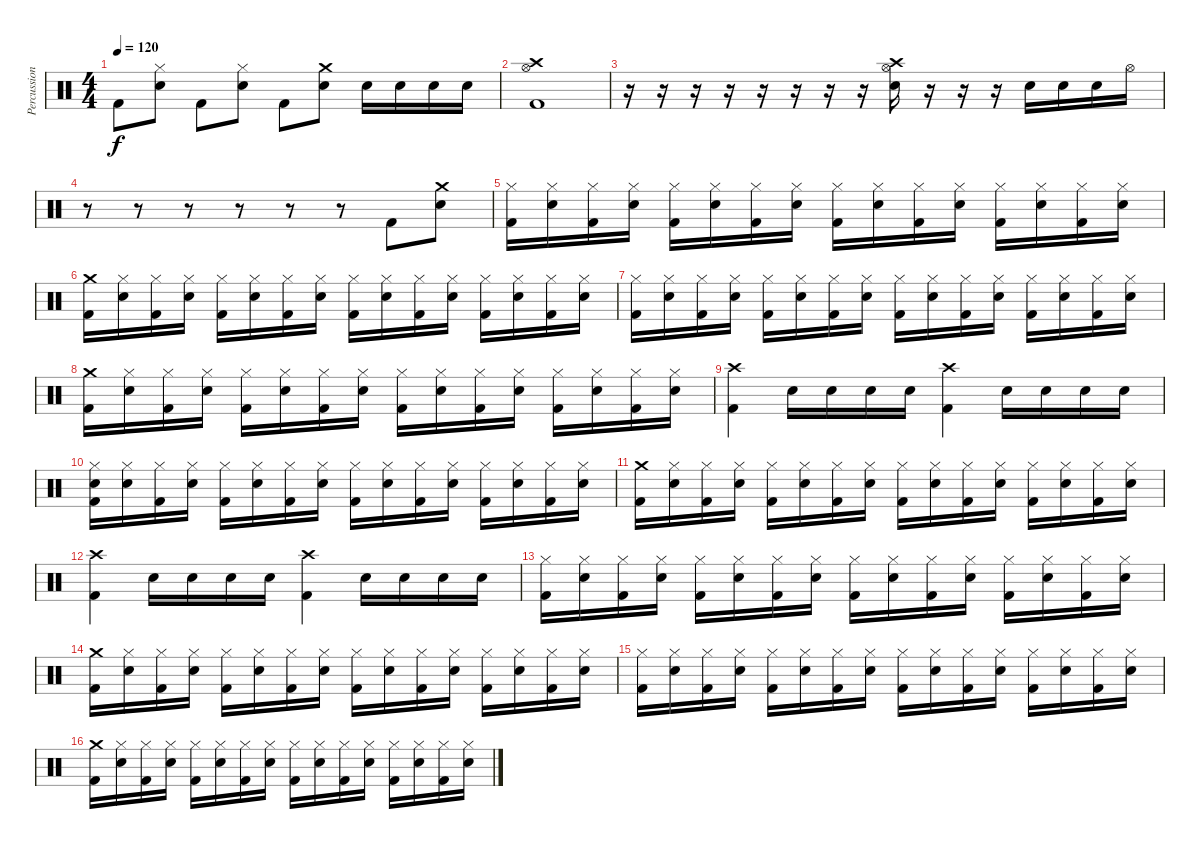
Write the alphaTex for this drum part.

\track ("Percussion" "Percussion") {instrument percussion}
\staff {score}
\articulation defaults
\ts (4 4)
\tempo 120
\clef neutral
\ks c "Kick (hit) 2".8{dy f}
("Hi-Hat (closed)" "Snare (hit) 2").8 "Kick (hit) 2".8 ("Hi-Hat (closed)" "Snare (hit) 2").8 "Kick (hit) 2".8 ("Crash medium (hit)" "Snare (hit) 2").8 "Snare (hit) 2".16 "Snare (hit) 2".16 "Snare (hit) 2".16 "Snare (hit) 2".16 |
("Crash high (hit)" "Hi-Hat (open)" "Kick (hit) 2").1 |
r.16 r.16 r.16 r.16 r.16 r.16 r.16 r.16 ("Crash high (hit)" "Hi-Hat (open)" "Snare (hit) 2").16 r.16 r.16 r.16 "Snare (hit) 2".16 "Snare (hit) 2".16 "Snare (hit) 2".16 "Hi-Hat (open)".16 |
r.8 r.8 r.8 r.8 r.8 r.8 "Kick (hit) 2".8 ("Crash medium (hit)" "Snare (hit) 2").8 |
("Hi-Hat (closed)" "Kick (hit) 2").16 ("Hi-Hat (closed)" "Snare (hit) 2").16 ("Hi-Hat (closed)" "Kick (hit) 2").16 ("Hi-Hat (closed)" "Snare (hit) 2").16 ("Hi-Hat (closed)" "Kick (hit) 2").16 ("Hi-Hat (closed)" "Snare (hit) 2").16 ("Hi-Hat (closed)" "Kick (hit) 2").16 ("Hi-Hat (closed)" "Snare (hit) 2").16 ("Hi-Hat (closed)" "Kick (hit) 2").16 ("Hi-Hat (closed)" "Snare (hit) 2").16 ("Hi-Hat (closed)" "Kick (hit) 2").16 ("Hi-Hat (closed)" "Snare (hit) 2").16 ("Hi-Hat (closed)" "Kick (hit) 2").16 ("Hi-Hat (closed)" "Snare (hit) 2").16 ("Hi-Hat (closed)" "Kick (hit) 2").16 ("Hi-Hat (closed)" "Snare (hit) 2").16 |
("Crash medium (hit)" "Kick (hit) 2").16 ("Hi-Hat (closed)" "Snare (hit) 2").16 ("Hi-Hat (closed)" "Kick (hit) 2").16 ("Hi-Hat (closed)" "Snare (hit) 2").16 ("Hi-Hat (closed)" "Kick (hit) 2").16 ("Hi-Hat (closed)" "Snare (hit) 2").16 ("Hi-Hat (closed)" "Kick (hit) 2").16 ("Hi-Hat (closed)" "Snare (hit) 2").16 ("Hi-Hat (closed)" "Kick (hit) 2").16 ("Hi-Hat (closed)" "Snare (hit) 2").16 ("Hi-Hat (closed)" "Kick (hit) 2").16 ("Hi-Hat (closed)" "Snare (hit) 2").16 ("Hi-Hat (closed)" "Kick (hit) 2").16 ("Hi-Hat (closed)" "Snare (hit) 2").16 ("Hi-Hat (closed)" "Kick (hit) 2").16 ("Hi-Hat (closed)" "Snare (hit) 2").16 |
("Hi-Hat (closed)" "Kick (hit) 2").16 ("Hi-Hat (closed)" "Snare (hit) 2").16 ("Hi-Hat (closed)" "Kick (hit) 2").16 ("Hi-Hat (closed)" "Snare (hit) 2").16 ("Hi-Hat (closed)" "Kick (hit) 2").16 ("Hi-Hat (closed)" "Snare (hit) 2").16 ("Hi-Hat (closed)" "Kick (hit) 2").16 ("Hi-Hat (closed)" "Snare (hit) 2").16 ("Hi-Hat (closed)" "Kick (hit) 2").16 ("Hi-Hat (closed)" "Snare (hit) 2").16 ("Hi-Hat (closed)" "Kick (hit) 2").16 ("Hi-Hat (closed)" "Snare (hit) 2").16 ("Hi-Hat (closed)" "Kick (hit) 2").16 ("Hi-Hat (closed)" "Snare (hit) 2").16 ("Hi-Hat (closed)" "Kick (hit) 2").16 ("Hi-Hat (closed)" "Snare (hit) 2").16 |
("Crash medium (hit)" "Kick (hit) 2").16 ("Hi-Hat (closed)" "Snare (hit) 2").16 ("Hi-Hat (closed)" "Kick (hit) 2").16 ("Hi-Hat (closed)" "Snare (hit) 2").16 ("Hi-Hat (closed)" "Kick (hit) 2").16 ("Hi-Hat (closed)" "Snare (hit) 2").16 ("Hi-Hat (closed)" "Kick (hit) 2").16 ("Hi-Hat (closed)" "Snare (hit) 2").16 ("Hi-Hat (closed)" "Kick (hit) 2").16 ("Hi-Hat (closed)" "Snare (hit) 2").16 ("Hi-Hat (closed)" "Kick (hit) 2").16 ("Hi-Hat (closed)" "Snare (hit) 2").16 ("Hi-Hat (closed)" "Kick (hit) 2").16 ("Hi-Hat (closed)" "Snare (hit) 2").16 ("Hi-Hat (closed)" "Kick (hit) 2").16 ("Hi-Hat (closed)" "Snare (hit) 2").16 |
("Crash high (hit)" "Kick (hit) 2").4 "Snare (hit) 2".16 "Snare (hit) 2".16 "Snare (hit) 2".16 "Snare (hit) 2".16 ("Crash high (hit)" "Kick (hit) 2").4 "Snare (hit) 2".16 "Snare (hit) 2".16 "Snare (hit) 2".16 "Snare (hit) 2".16 |
("Hi-Hat (closed)" "Snare (hit)" "Kick (hit) 2").16 ("Hi-Hat (closed)" "Snare (hit) 2").16 ("Hi-Hat (closed)" "Kick (hit) 2").16 ("Hi-Hat (closed)" "Snare (hit) 2").16 ("Hi-Hat (closed)" "Kick (hit) 2").16 ("Hi-Hat (closed)" "Snare (hit) 2").16 ("Hi-Hat (closed)" "Kick (hit) 2").16 ("Hi-Hat (closed)" "Snare (hit) 2").16 ("Hi-Hat (closed)" "Kick (hit) 2").16 ("Hi-Hat (closed)" "Snare (hit) 2").16 ("Hi-Hat (closed)" "Kick (hit) 2").16 ("Hi-Hat (closed)" "Snare (hit) 2").16 ("Hi-Hat (closed)" "Kick (hit) 2").16 ("Hi-Hat (closed)" "Snare (hit) 2").16 ("Hi-Hat (closed)" "Kick (hit) 2").16 ("Hi-Hat (closed)" "Snare (hit) 2").16 |
("Crash medium (hit)" "Kick (hit) 2").16 ("Hi-Hat (closed)" "Snare (hit) 2").16 ("Hi-Hat (closed)" "Kick (hit) 2").16 ("Hi-Hat (closed)" "Snare (hit) 2").16 ("Hi-Hat (closed)" "Kick (hit) 2").16 ("Hi-Hat (closed)" "Snare (hit) 2").16 ("Hi-Hat (closed)" "Kick (hit) 2").16 ("Hi-Hat (closed)" "Snare (hit) 2").16 ("Hi-Hat (closed)" "Kick (hit) 2").16 ("Hi-Hat (closed)" "Snare (hit) 2").16 ("Hi-Hat (closed)" "Kick (hit) 2").16 ("Hi-Hat (closed)" "Snare (hit) 2").16 ("Hi-Hat (closed)" "Kick (hit) 2").16 ("Hi-Hat (closed)" "Snare (hit) 2").16 ("Hi-Hat (closed)" "Kick (hit) 2").16 ("Hi-Hat (closed)" "Snare (hit) 2").16 |
("Crash high (hit)" "Kick (hit) 2").4 "Snare (hit) 2".16 "Snare (hit) 2".16 "Snare (hit) 2".16 "Snare (hit) 2".16 ("Crash high (hit)" "Kick (hit) 2").4 "Snare (hit) 2".16 "Snare (hit) 2".16 "Snare (hit) 2".16 "Snare (hit) 2".16 |
("Hi-Hat (closed)" "Kick (hit) 2").16 ("Hi-Hat (closed)" "Snare (hit) 2").16 ("Hi-Hat (closed)" "Kick (hit) 2").16 ("Hi-Hat (closed)" "Snare (hit) 2").16 ("Hi-Hat (closed)" "Kick (hit) 2").16 ("Hi-Hat (closed)" "Snare (hit) 2").16 ("Hi-Hat (closed)" "Kick (hit) 2").16 ("Hi-Hat (closed)" "Snare (hit) 2").16 ("Hi-Hat (closed)" "Kick (hit) 2").16 ("Hi-Hat (closed)" "Snare (hit) 2").16 ("Hi-Hat (closed)" "Kick (hit) 2").16 ("Hi-Hat (closed)" "Snare (hit) 2").16 ("Hi-Hat (closed)" "Kick (hit) 2").16 ("Hi-Hat (closed)" "Snare (hit) 2").16 ("Hi-Hat (closed)" "Kick (hit) 2").16 ("Hi-Hat (closed)" "Snare (hit) 2").16 |
("Crash medium (hit)" "Kick (hit) 2").16 ("Hi-Hat (closed)" "Snare (hit) 2").16 ("Hi-Hat (closed)" "Kick (hit) 2").16 ("Hi-Hat (closed)" "Snare (hit) 2").16 ("Hi-Hat (closed)" "Kick (hit) 2").16 ("Hi-Hat (closed)" "Snare (hit) 2").16 ("Hi-Hat (closed)" "Kick (hit) 2").16 ("Hi-Hat (closed)" "Snare (hit) 2").16 ("Hi-Hat (closed)" "Kick (hit) 2").16 ("Hi-Hat (closed)" "Snare (hit) 2").16 ("Hi-Hat (closed)" "Kick (hit) 2").16 ("Hi-Hat (closed)" "Snare (hit) 2").16 ("Hi-Hat (closed)" "Kick (hit) 2").16 ("Hi-Hat (closed)" "Snare (hit) 2").16 ("Hi-Hat (closed)" "Kick (hit) 2").16 ("Hi-Hat (closed)" "Snare (hit) 2").16 |
("Hi-Hat (closed)" "Kick (hit) 2").16 ("Hi-Hat (closed)" "Snare (hit) 2").16 ("Hi-Hat (closed)" "Kick (hit) 2").16 ("Hi-Hat (closed)" "Snare (hit) 2").16 ("Hi-Hat (closed)" "Kick (hit) 2").16 ("Hi-Hat (closed)" "Snare (hit) 2").16 ("Hi-Hat (closed)" "Kick (hit) 2").16 ("Hi-Hat (closed)" "Snare (hit) 2").16 ("Hi-Hat (closed)" "Kick (hit) 2").16 ("Hi-Hat (closed)" "Snare (hit) 2").16 ("Hi-Hat (closed)" "Kick (hit) 2").16 ("Hi-Hat (closed)" "Snare (hit) 2").16 ("Hi-Hat (closed)" "Kick (hit) 2").16 ("Hi-Hat (closed)" "Snare (hit) 2").16 ("Hi-Hat (closed)" "Kick (hit) 2").16 ("Hi-Hat (closed)" "Snare (hit) 2").16 |
("Crash medium (hit)" "Kick (hit) 2").16 ("Hi-Hat (closed)" "Snare (hit) 2").16 ("Hi-Hat (closed)" "Kick (hit) 2").16 ("Hi-Hat (closed)" "Snare (hit) 2").16 ("Hi-Hat (closed)" "Kick (hit) 2").16 ("Hi-Hat (closed)" "Snare (hit) 2").16 ("Hi-Hat (closed)" "Kick (hit) 2").16 ("Hi-Hat (closed)" "Snare (hit) 2").16 ("Hi-Hat (closed)" "Kick (hit) 2").16 ("Hi-Hat (closed)" "Snare (hit) 2").16 ("Hi-Hat (closed)" "Kick (hit) 2").16 ("Hi-Hat (closed)" "Snare (hit) 2").16 ("Hi-Hat (closed)" "Kick (hit) 2").16 ("Hi-Hat (closed)" "Snare (hit) 2").16 ("Hi-Hat (closed)" "Kick (hit) 2").16 ("Hi-Hat (closed)" "Snare (hit) 2").16
